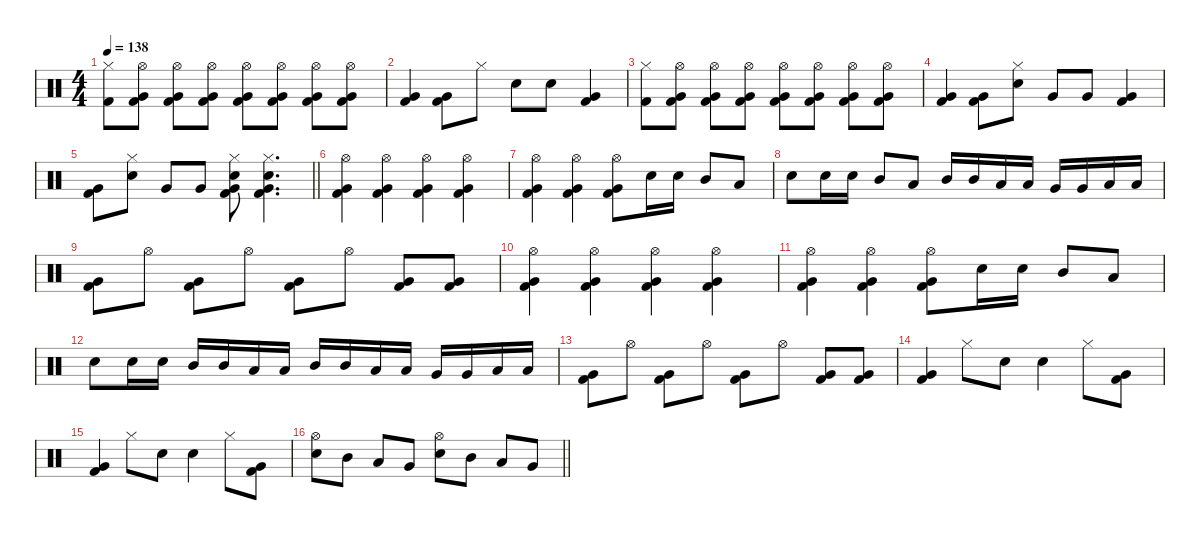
\defaultSystemsLayout 4
\hideDynamics
\bracketExtendMode nobrackets
\singleTrackTrackNamePolicy hidden
\multiTrackTrackNamePolicy hidden
\otherSystemsTrackNameOrientation horizontal
\track ("Drums" "drm.") {instrument percussion}
\staff {score}
\articulation defaults
\ts (4 4)
\tempo 138
\clef neutral
\ks c
("Hi-Hat (closed)" "Kick (hit) 2").8{dy mp beam Down} ("Hi-Hat (open)" "Very Low Tom (hit)" "Kick (hit) 2").8{dy f beam Down} ("Hi-Hat (open)" "Very Low Tom (hit)" "Kick (hit) 2").8{beam Down} ("Hi-Hat (open)" "Very Low Tom (hit)" "Kick (hit) 2").8{beam Down} ("Hi-Hat (open)" "Very Low Tom (hit)" "Kick (hit) 2").8{beam Down} ("Hi-Hat (open)" "Very Low Tom (hit)" "Kick (hit) 2").8{beam Down} ("Hi-Hat (open)" "Very Low Tom (hit)" "Kick (hit) 2").8{beam Down} ("Hi-Hat (open)" "Very Low Tom (hit)" "Kick (hit) 2").8{beam Down} |
("Very Low Tom (hit)" "Kick (hit) 2").4{dy fff beam Up} ("Very Low Tom (hit)" "Kick (hit) 2").8{dy mp beam Down} "Hi-Hat (closed)".8{dy fff beam Down} "Snare (hit) 2".8{dy f beam Down} "Snare (hit) 2".8{dy mp beam Down} ("Very Low Tom (hit)" "Kick (hit) 2").4{beam Up} |
("Hi-Hat (closed)" "Kick (hit) 2").8{beam Down} ("Hi-Hat (open)" "Very Low Tom (hit)" "Kick (hit) 2").8{dy f beam Down} ("Hi-Hat (open)" "Very Low Tom (hit)" "Kick (hit) 2").8{beam Down} ("Hi-Hat (open)" "Very Low Tom (hit)" "Kick (hit) 2").8{beam Down} ("Hi-Hat (open)" "Very Low Tom (hit)" "Kick (hit) 2").8{beam Down} ("Hi-Hat (open)" "Very Low Tom (hit)" "Kick (hit) 2").8{beam Down} ("Hi-Hat (open)" "Very Low Tom (hit)" "Kick (hit) 2").8{beam Down} ("Hi-Hat (open)" "Very Low Tom (hit)" "Kick (hit) 2").8{beam Down} |
("Very Low Tom (hit)" "Kick (hit) 2").4{dy fff beam Up} ("Very Low Tom (hit)" "Kick (hit) 2").8{dy mp beam Down} ("Hi-Hat (closed)" "Snare (hit) 2").8{dy f beam Down} "Very Low Tom (hit)".8{beam Up} "Very Low Tom (hit)".8{beam Up} ("Very Low Tom (hit)" "Kick (hit) 2").4{dy mp beam Up} |
\barLineRight lightlight
("Very Low Tom (hit)" "Kick (hit) 2").8{dy f beam Down} ("Hi-Hat (closed)" "Snare (hit) 2").8{beam Down} "Very Low Tom (hit)".8{beam Up} "Very Low Tom (hit)".8{beam Up} ("Hi-Hat (closed)" "Snare (hit) 2" "Very Low Tom (hit)" "Kick (hit) 2").8{beam Down} ("Hi-Hat (closed)" "Snare (hit) 2" "Very Low Tom (hit)" "Kick (hit) 2").4{d beam Down} |
("Hi-Hat (open)" "Very Low Tom (hit)" "Kick (hit) 2").4{beam Down} ("Hi-Hat (open)" "Very Low Tom (hit)" "Kick (hit) 2").4{beam Down} ("Hi-Hat (open)" "Very Low Tom (hit)" "Kick (hit) 2").4{beam Down} ("Hi-Hat (open)" "Very Low Tom (hit)" "Kick (hit) 2").4{beam Down} |
("Hi-Hat (open)" "Very Low Tom (hit)" "Kick (hit) 2").4{beam Down} ("Hi-Hat (open)" "Very Low Tom (hit)" "Kick (hit) 2").4{beam Down} ("Hi-Hat (open)" "Very Low Tom (hit)" "Kick (hit) 2").8{beam Down} "Snare (hit) 2".16{beam Down} "Snare (hit) 2".16{beam Down} "Mid Tom (hit)".8{beam Up} "Low Tom (hit)".8{beam Up} |
"Snare (hit) 2".8{beam Down} "Snare (hit) 2".16{beam Down} "Snare (hit) 2".16{beam Down} "Mid Tom (hit)".8{beam Up} "Low Tom (hit)".8{beam Up} "Mid Tom (hit)".16{beam Up} "Mid Tom (hit)".16{beam Up} "Low Tom (hit)".16{beam Up} "Low Tom (hit)".16{beam Up} "Very Low Tom (hit)".16{beam Up} "Very Low Tom (hit)".16{beam Up} "Low Floor Tom (hit)".16{beam Up} "Low Floor Tom (hit)".16{beam Up} |
("Very Low Tom (hit)" "Kick (hit) 2").8{beam Down} "Hi-Hat (open)".8{dy mf beam Down} ("Very Low Tom (hit)" "Kick (hit) 2").8{dy f beam Down} "Hi-Hat (open)".8{dy mf beam Down} ("Very Low Tom (hit)" "Kick (hit) 2").8{dy f beam Down} "Hi-Hat (open)".8{dy mf beam Down} ("Very Low Tom (hit)" "Kick (hit) 2").8{dy f beam Up} ("Very Low Tom (hit)" "Kick (hit) 2").8{beam Up} |
("Hi-Hat (open)" "Very Low Tom (hit)" "Kick (hit) 2").4{beam Down} ("Hi-Hat (open)" "Very Low Tom (hit)" "Kick (hit) 2").4{beam Down} ("Hi-Hat (open)" "Very Low Tom (hit)" "Kick (hit) 2").4{beam Down} ("Hi-Hat (open)" "Very Low Tom (hit)" "Kick (hit) 2").4{beam Down} |
("Hi-Hat (open)" "Very Low Tom (hit)" "Kick (hit) 2").4{beam Down} ("Hi-Hat (open)" "Very Low Tom (hit)" "Kick (hit) 2").4{beam Down} ("Hi-Hat (open)" "Very Low Tom (hit)" "Kick (hit) 2").8{beam Down} "Snare (hit) 2".16{beam Down} "Snare (hit) 2".16{beam Down} "Mid Tom (hit)".8{beam Up} "Low Tom (hit)".8{beam Up} |
"Snare (hit) 2".8{beam Down} "Snare (hit) 2".16{beam Down} "Snare (hit) 2".16{beam Down} "Mid Tom (hit)".16{beam Up} "Mid Tom (hit)".16{dy fff beam Up} "Low Tom (hit)".16{dy f beam Up} "Low Tom (hit)".16{dy fff beam Up} "Mid Tom (hit)".16{dy f beam Up} "Mid Tom (hit)".16{beam Up} "Low Tom (hit)".16{beam Up} "Low Tom (hit)".16{beam Up} "Very Low Tom (hit)".16{beam Up} "Very Low Tom (hit)".16{beam Up} "Low Floor Tom (hit)".16{beam Up} "Low Floor Tom (hit)".16{beam Up} |
("Very Low Tom (hit)" "Kick (hit) 2").8{beam Down} "Hi-Hat (open)".8{dy mf beam Down} ("Very Low Tom (hit)" "Kick (hit) 2").8{dy f beam Down} "Hi-Hat (open)".8{dy mf beam Down} ("Very Low Tom (hit)" "Kick (hit) 2").8{dy f beam Down} "Hi-Hat (open)".8{dy mf beam Down} ("Very Low Tom (hit)" "Kick (hit) 2").8{dy f beam Up} ("Very Low Tom (hit)" "Kick (hit) 2").8{beam Up} |
("Very Low Tom (hit)" "Kick (hit) 2").4{dy ff beam Up} "Hi-Hat (closed)".8{dy fff beam Down} "Snare (hit) 2".8{dy p beam Down} "Snare (hit) 2".4{dy ff beam Down} "Hi-Hat (closed)".8{dy fff beam Down} ("Very Low Tom (hit)" "Kick (hit) 2").8{dy ff beam Down} |
("Very Low Tom (hit)" "Kick (hit) 2").4{beam Up} "Hi-Hat (closed)".8{dy fff beam Down} "Snare (hit) 2".8{dy p beam Down} "Snare (hit) 2".4{dy ff beam Down} "Hi-Hat (closed)".8{dy fff beam Down} ("Very Low Tom (hit)" "Kick (hit) 2").8{dy ff beam Down} |
\barLineRight lightlight
("Hi-Hat (open)" "Snare (hit) 2").8{dy fff beam Down} "Mid Tom (hit)".8{beam Down} "Low Tom (hit)".8{beam Up} "Very Low Tom (hit)".8{beam Up} ("Hi-Hat (open)" "Snare (hit) 2").8{beam Down} "Mid Tom (hit)".8{beam Down} "Low Tom (hit)".8{beam Up} "Very Low Tom (hit)".8{beam Up}
